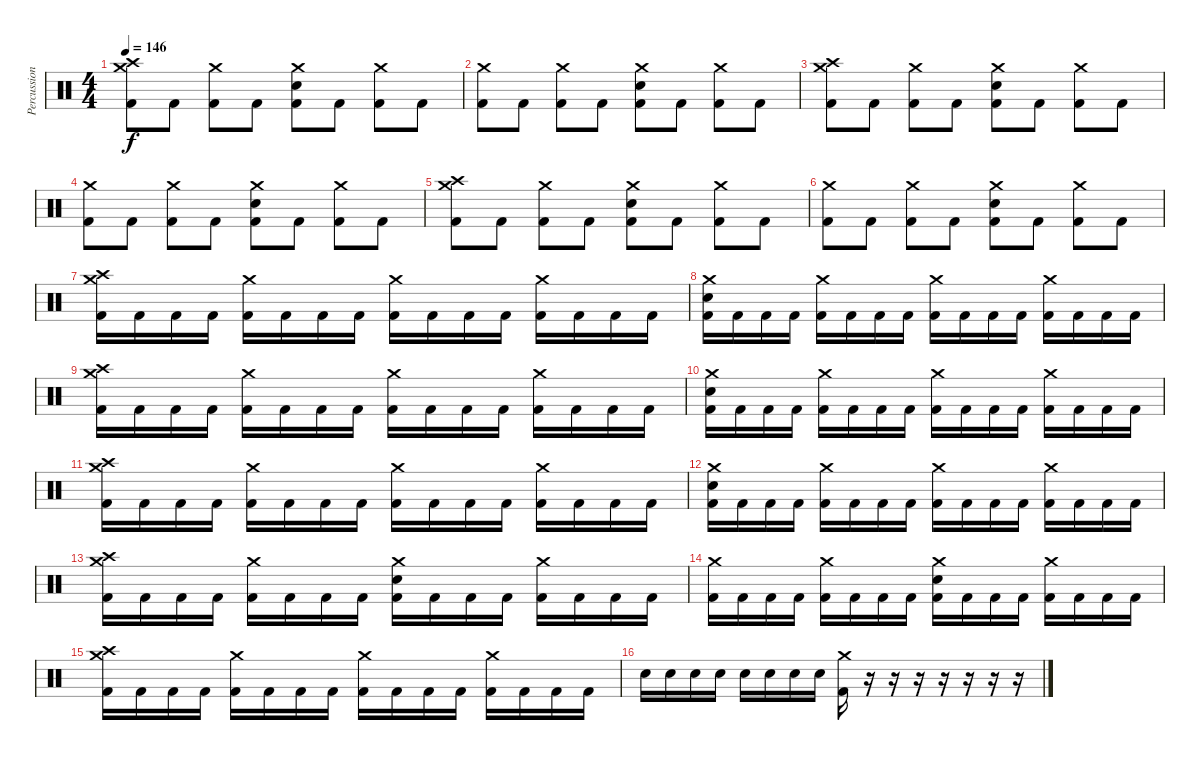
\track ("Percussion" "Percussion") {instrument percussion}
\staff {score}
\articulation defaults
\ts (4 4)
\tempo 146
\clef neutral
\ks c
("Crash high (hit)" "Crash medium (hit)" "Kick (hit) 2").8{dy f} "Kick (hit) 2".8 ("Crash medium (hit)" "Kick (hit) 2").8 "Kick (hit) 2".8 ("Crash medium (hit)" "Snare (hit) 2" "Kick (hit) 2").8 "Kick (hit) 2".8 ("Crash medium (hit)" "Kick (hit) 2").8 "Kick (hit) 2".8 |
("Crash medium (hit)" "Kick (hit) 2").8 "Kick (hit) 2".8 ("Crash medium (hit)" "Kick (hit) 2").8 "Kick (hit) 2".8 ("Crash medium (hit)" "Snare (hit) 2" "Kick (hit) 2").8 "Kick (hit) 2".8 ("Crash medium (hit)" "Kick (hit) 2").8 "Kick (hit) 2".8 |
("Crash high (hit)" "Crash medium (hit)" "Kick (hit) 2").8 "Kick (hit) 2".8 ("Crash medium (hit)" "Kick (hit) 2").8 "Kick (hit) 2".8 ("Crash medium (hit)" "Snare (hit) 2" "Kick (hit) 2").8 "Kick (hit) 2".8 ("Crash medium (hit)" "Kick (hit) 2").8 "Kick (hit) 2".8 |
("Crash medium (hit)" "Kick (hit) 2").8 "Kick (hit) 2".8 ("Crash medium (hit)" "Kick (hit) 2").8 "Kick (hit) 2".8 ("Crash medium (hit)" "Snare (hit) 2" "Kick (hit) 2").8 "Kick (hit) 2".8 ("Crash medium (hit)" "Kick (hit) 2").8 "Kick (hit) 2".8 |
("Crash high (hit)" "Crash medium (hit)" "Kick (hit) 2").8 "Kick (hit) 2".8 ("Crash medium (hit)" "Kick (hit) 2").8 "Kick (hit) 2".8 ("Crash medium (hit)" "Snare (hit) 2" "Kick (hit) 2").8 "Kick (hit) 2".8 ("Crash medium (hit)" "Kick (hit) 2").8 "Kick (hit) 2".8 |
("Crash medium (hit)" "Kick (hit) 2").8 "Kick (hit) 2".8 ("Crash medium (hit)" "Kick (hit) 2").8 "Kick (hit) 2".8 ("Crash medium (hit)" "Snare (hit) 2" "Kick (hit) 2").8 "Kick (hit) 2".8 ("Crash medium (hit)" "Kick (hit) 2").8 "Kick (hit) 2".8 |
("Crash high (hit)" "Crash medium (hit)" "Kick (hit) 2").16 "Kick (hit) 2".16 "Kick (hit) 2".16 "Kick (hit) 2".16 ("Crash medium (hit)" "Kick (hit) 2").16 "Kick (hit) 2".16 "Kick (hit) 2".16 "Kick (hit) 2".16 ("Crash medium (hit)" "Kick (hit) 2").16 "Kick (hit) 2".16 "Kick (hit) 2".16 "Kick (hit) 2".16 ("Crash medium (hit)" "Kick (hit) 2").16 "Kick (hit) 2".16 "Kick (hit) 2".16 "Kick (hit) 2".16 |
("Crash medium (hit)" "Snare (hit) 2" "Kick (hit) 2").16 "Kick (hit) 2".16 "Kick (hit) 2".16 "Kick (hit) 2".16 ("Crash medium (hit)" "Kick (hit) 2").16 "Kick (hit) 2".16 "Kick (hit) 2".16 "Kick (hit) 2".16 ("Crash medium (hit)" "Kick (hit) 2").16 "Kick (hit) 2".16 "Kick (hit) 2".16 "Kick (hit) 2".16 ("Crash medium (hit)" "Kick (hit) 2").16 "Kick (hit) 2".16 "Kick (hit) 2".16 "Kick (hit) 2".16 |
("Crash high (hit)" "Crash medium (hit)" "Kick (hit) 2").16 "Kick (hit) 2".16 "Kick (hit) 2".16 "Kick (hit) 2".16 ("Crash medium (hit)" "Kick (hit) 2").16 "Kick (hit) 2".16 "Kick (hit) 2".16 "Kick (hit) 2".16 ("Crash medium (hit)" "Kick (hit) 2").16 "Kick (hit) 2".16 "Kick (hit) 2".16 "Kick (hit) 2".16 ("Crash medium (hit)" "Kick (hit) 2").16 "Kick (hit) 2".16 "Kick (hit) 2".16 "Kick (hit) 2".16 |
("Crash medium (hit)" "Snare (hit) 2" "Kick (hit) 2").16 "Kick (hit) 2".16 "Kick (hit) 2".16 "Kick (hit) 2".16 ("Crash medium (hit)" "Kick (hit) 2").16 "Kick (hit) 2".16 "Kick (hit) 2".16 "Kick (hit) 2".16 ("Crash medium (hit)" "Kick (hit) 2").16 "Kick (hit) 2".16 "Kick (hit) 2".16 "Kick (hit) 2".16 ("Crash medium (hit)" "Kick (hit) 2").16 "Kick (hit) 2".16 "Kick (hit) 2".16 "Kick (hit) 2".16 |
("Crash high (hit)" "Crash medium (hit)" "Kick (hit) 2").16 "Kick (hit) 2".16 "Kick (hit) 2".16 "Kick (hit) 2".16 ("Crash medium (hit)" "Kick (hit) 2").16 "Kick (hit) 2".16 "Kick (hit) 2".16 "Kick (hit) 2".16 ("Crash medium (hit)" "Kick (hit) 2").16 "Kick (hit) 2".16 "Kick (hit) 2".16 "Kick (hit) 2".16 ("Crash medium (hit)" "Kick (hit) 2").16 "Kick (hit) 2".16 "Kick (hit) 2".16 "Kick (hit) 2".16 |
("Crash medium (hit)" "Snare (hit) 2" "Kick (hit) 2").16 "Kick (hit) 2".16 "Kick (hit) 2".16 "Kick (hit) 2".16 ("Crash medium (hit)" "Kick (hit) 2").16 "Kick (hit) 2".16 "Kick (hit) 2".16 "Kick (hit) 2".16 ("Crash medium (hit)" "Kick (hit) 2").16 "Kick (hit) 2".16 "Kick (hit) 2".16 "Kick (hit) 2".16 ("Crash medium (hit)" "Kick (hit) 2").16 "Kick (hit) 2".16 "Kick (hit) 2".16 "Kick (hit) 2".16 |
("Crash high (hit)" "Crash medium (hit)" "Kick (hit) 2").16 "Kick (hit) 2".16 "Kick (hit) 2".16 "Kick (hit) 2".16 ("Crash medium (hit)" "Kick (hit) 2").16 "Kick (hit) 2".16 "Kick (hit) 2".16 "Kick (hit) 2".16 ("Crash medium (hit)" "Snare (hit) 2" "Kick (hit) 2").16 "Kick (hit) 2".16 "Kick (hit) 2".16 "Kick (hit) 2".16 ("Crash medium (hit)" "Kick (hit) 2").16 "Kick (hit) 2".16 "Kick (hit) 2".16 "Kick (hit) 2".16 |
("Crash medium (hit)" "Kick (hit) 2").16 "Kick (hit) 2".16 "Kick (hit) 2".16 "Kick (hit) 2".16 ("Crash medium (hit)" "Kick (hit) 2").16 "Kick (hit) 2".16 "Kick (hit) 2".16 "Kick (hit) 2".16 ("Crash medium (hit)" "Snare (hit) 2" "Kick (hit) 2").16 "Kick (hit) 2".16 "Kick (hit) 2".16 "Kick (hit) 2".16 ("Crash medium (hit)" "Kick (hit) 2").16 "Kick (hit) 2".16 "Kick (hit) 2".16 "Kick (hit) 2".16 |
("Crash high (hit)" "Crash medium (hit)" "Kick (hit) 2").16 "Kick (hit) 2".16 "Kick (hit) 2".16 "Kick (hit) 2".16 ("Crash medium (hit)" "Kick (hit) 2").16 "Kick (hit) 2".16 "Kick (hit) 2".16 "Kick (hit) 2".16 ("Crash medium (hit)" "Kick (hit) 2").16 "Kick (hit) 2".16 "Kick (hit) 2".16 "Kick (hit) 2".16 ("Crash medium (hit)" "Kick (hit) 2").16 "Kick (hit) 2".16 "Kick (hit) 2".16 "Kick (hit) 2".16 |
"Snare (hit) 2".16 "Snare (hit) 2".16 "Snare (hit) 2".16 "Snare (hit) 2".16 "Snare (hit) 2".16 "Snare (hit) 2".16 "Snare (hit) 2".16 "Snare (hit) 2".16 ("Crash medium (hit)" "Kick (hit) 2").16 r.16 r.16 r.16 r.16 r.16 r.16 r.16
